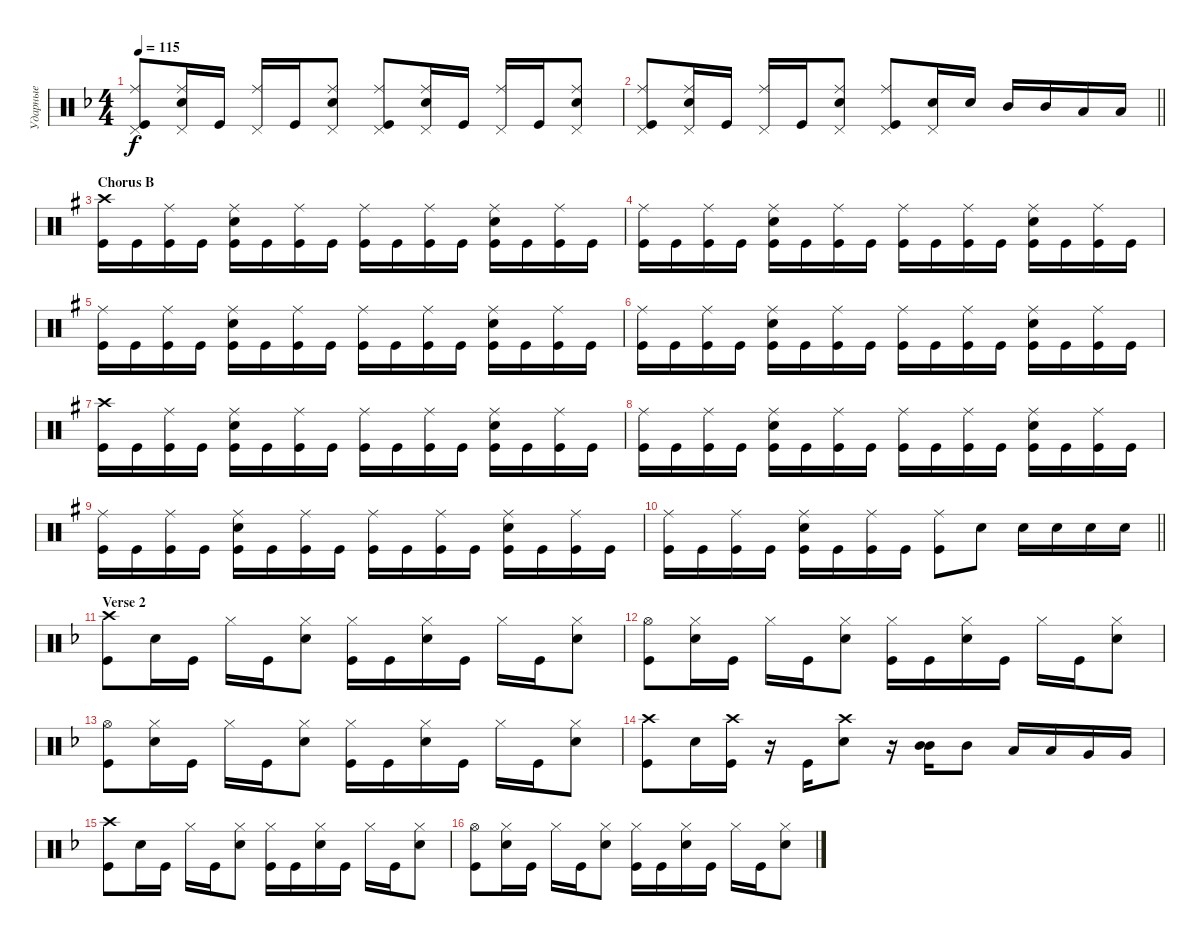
\track ("Ударные" "Ударные") {instrument percussion}
\staff {score}
\articulation defaults
\ts (4 4)
\tempo 115
\clef neutral
\ks dminor
("Kick (hit)" "Pedal Hi-Hat (hit)" "Ride (middle)").8{dy f} ("Snare (hit) 2" "Ride (middle)" "Pedal Hi-Hat (hit)").16 "Kick (hit)".16 ("Ride (middle)" "Pedal Hi-Hat (hit)").16 "Kick (hit)".16 ("Snare (hit) 2" "Ride (middle)" "Pedal Hi-Hat (hit)").8 ("Kick (hit)" "Pedal Hi-Hat (hit)" "Ride (middle)").8 ("Snare (hit) 2" "Ride (middle)" "Pedal Hi-Hat (hit)").16 "Kick (hit)".16 ("Ride (middle)" "Pedal Hi-Hat (hit)").16 "Kick (hit)".16 ("Snare (hit) 2" "Ride (middle)" "Pedal Hi-Hat (hit)").8 |
\barLineRight lightlight
("Kick (hit)" "Pedal Hi-Hat (hit)" "Ride (middle)").8 ("Snare (hit) 2" "Ride (middle)" "Pedal Hi-Hat (hit)").16 "Kick (hit)".16 ("Ride (middle)" "Pedal Hi-Hat (hit)").16 "Kick (hit)".16 ("Snare (hit) 2" "Ride (middle)" "Pedal Hi-Hat (hit)").8 ("Kick (hit)" "Pedal Hi-Hat (hit)" "Ride (middle)").8 ("Pedal Hi-Hat (hit)" "Snare (hit) 2").16 "Snare (hit) 2".16 "Mid Tom (hit)".16 "Mid Tom (hit)".16 "Low Tom (hit)".16 "Low Tom (hit)".16 |
\section ("" "Chorus B")
\ks eminor
("Kick (hit)" "Crash high (hit)").16 "Kick (hit)".16 ("Kick (hit)" "Ride (middle)").16 "Kick (hit)".16 ("Kick (hit)" "Snare (hit) 2" "Ride (middle)").16 "Kick (hit)".16 ("Kick (hit)" "Ride (middle)").16 "Kick (hit)".16 ("Kick (hit)" "Ride (middle)").16 "Kick (hit)".16 ("Kick (hit)" "Ride (middle)").16 "Kick (hit)".16 ("Kick (hit)" "Snare (hit) 2" "Ride (middle)").16 "Kick (hit)".16 ("Kick (hit)" "Ride (middle)").16 "Kick (hit)".16 |
("Kick (hit)" "Ride (middle)").16 "Kick (hit)".16 ("Kick (hit)" "Ride (middle)").16 "Kick (hit)".16 ("Kick (hit)" "Snare (hit) 2" "Ride (middle)").16 "Kick (hit)".16 ("Kick (hit)" "Ride (middle)").16 "Kick (hit)".16 ("Kick (hit)" "Ride (middle)").16 "Kick (hit)".16 ("Kick (hit)" "Ride (middle)").16 "Kick (hit)".16 ("Kick (hit)" "Snare (hit) 2" "Ride (middle)").16 "Kick (hit)".16 ("Kick (hit)" "Ride (middle)").16 "Kick (hit)".16 |
("Kick (hit)" "Ride (middle)").16 "Kick (hit)".16 ("Kick (hit)" "Ride (middle)").16 "Kick (hit)".16 ("Kick (hit)" "Snare (hit) 2" "Ride (middle)").16 "Kick (hit)".16 ("Kick (hit)" "Ride (middle)").16 "Kick (hit)".16 ("Kick (hit)" "Ride (middle)").16 "Kick (hit)".16 ("Kick (hit)" "Ride (middle)").16 "Kick (hit)".16 ("Kick (hit)" "Snare (hit) 2" "Ride (middle)").16 "Kick (hit)".16 ("Kick (hit)" "Ride (middle)").16 "Kick (hit)".16 |
("Kick (hit)" "Ride (middle)").16 "Kick (hit)".16 ("Kick (hit)" "Ride (middle)").16 "Kick (hit)".16 ("Kick (hit)" "Snare (hit) 2" "Ride (middle)").16 "Kick (hit)".16 ("Kick (hit)" "Ride (middle)").16 "Kick (hit)".16 ("Kick (hit)" "Ride (middle)").16 "Kick (hit)".16 ("Kick (hit)" "Ride (middle)").16 "Kick (hit)".16 ("Kick (hit)" "Snare (hit) 2" "Ride (middle)").16 "Kick (hit)".16 ("Kick (hit)" "Ride (middle)").16 "Kick (hit)".16 |
("Kick (hit)" "Crash high (hit)").16 "Kick (hit)".16 ("Kick (hit)" "Ride (middle)").16 "Kick (hit)".16 ("Kick (hit)" "Snare (hit) 2" "Ride (middle)").16 "Kick (hit)".16 ("Kick (hit)" "Ride (middle)").16 "Kick (hit)".16 ("Kick (hit)" "Ride (middle)").16 "Kick (hit)".16 ("Kick (hit)" "Ride (middle)").16 "Kick (hit)".16 ("Kick (hit)" "Snare (hit) 2" "Ride (middle)").16 "Kick (hit)".16 ("Kick (hit)" "Ride (middle)").16 "Kick (hit)".16 |
("Kick (hit)" "Ride (middle)").16 "Kick (hit)".16 ("Kick (hit)" "Ride (middle)").16 "Kick (hit)".16 ("Kick (hit)" "Snare (hit) 2" "Ride (middle)").16 "Kick (hit)".16 ("Kick (hit)" "Ride (middle)").16 "Kick (hit)".16 ("Kick (hit)" "Ride (middle)").16 "Kick (hit)".16 ("Kick (hit)" "Ride (middle)").16 "Kick (hit)".16 ("Kick (hit)" "Snare (hit) 2" "Ride (middle)").16 "Kick (hit)".16 ("Kick (hit)" "Ride (middle)").16 "Kick (hit)".16 |
("Kick (hit)" "Ride (middle)").16 "Kick (hit)".16 ("Kick (hit)" "Ride (middle)").16 "Kick (hit)".16 ("Kick (hit)" "Snare (hit) 2" "Ride (middle)").16 "Kick (hit)".16 ("Kick (hit)" "Ride (middle)").16 "Kick (hit)".16 ("Kick (hit)" "Ride (middle)").16 "Kick (hit)".16 ("Kick (hit)" "Ride (middle)").16 "Kick (hit)".16 ("Kick (hit)" "Snare (hit) 2" "Ride (middle)").16 "Kick (hit)".16 ("Kick (hit)" "Ride (middle)").16 "Kick (hit)".16 |
\barLineRight lightlight
("Kick (hit)" "Ride (middle)").16 "Kick (hit)".16 ("Kick (hit)" "Ride (middle)").16 "Kick (hit)".16 ("Kick (hit)" "Snare (hit) 2" "Ride (middle)").16 "Kick (hit)".16 ("Kick (hit)" "Ride (middle)").16 "Kick (hit)".16 ("Kick (hit)" "Ride (middle)").8 "Snare (hit) 2".8 "Snare (hit) 2".16 "Snare (hit) 2".16 "Snare (hit) 2".16 "Snare (hit) 2".16 |
\section ("" "Verse 2")
\ks dminor
("Kick (hit)" "Crash high (hit)").8 "Snare (hit) 2".16 "Kick (hit)".16 "Hi-Hat (closed)".16 "Kick (hit)".16 ("Snare (hit) 2" "Hi-Hat (closed)").8 ("Kick (hit)" "Hi-Hat (closed)").16 "Kick (hit)".16 ("Snare (hit) 2" "Hi-Hat (closed)").16 "Kick (hit)".16 "Hi-Hat (closed)".16 "Kick (hit)".16 ("Snare (hit) 2" "Hi-Hat (closed)").8 |
("Kick (hit)" "Hi-Hat (open)").8 ("Snare (hit) 2" "Hi-Hat (closed)").16 "Kick (hit)".16 "Hi-Hat (closed)".16 "Kick (hit)".16 ("Snare (hit) 2" "Hi-Hat (closed)").8 ("Kick (hit)" "Hi-Hat (closed)").16 "Kick (hit)".16 ("Snare (hit) 2" "Hi-Hat (closed)").16 "Kick (hit)".16 "Hi-Hat (closed)".16 "Kick (hit)".16 ("Snare (hit) 2" "Hi-Hat (closed)").8 |
("Kick (hit)" "Hi-Hat (open)").8 ("Snare (hit) 2" "Hi-Hat (closed)").16 "Kick (hit)".16 "Hi-Hat (closed)".16 "Kick (hit)".16 ("Snare (hit) 2" "Hi-Hat (closed)").8 ("Kick (hit)" "Hi-Hat (closed)").16 "Kick (hit)".16 ("Snare (hit) 2" "Hi-Hat (closed)").16 "Kick (hit)".16 "Hi-Hat (closed)".16 "Kick (hit)".16 ("Snare (hit) 2" "Hi-Hat (closed)").8 |
("Kick (hit)" "Crash high (hit)").8 "Snare (hit) 2".16 ("Kick (hit)" "Crash high (hit)").16 r.16 "Kick (hit)".16 ("Snare (hit) 2" "Crash high (hit)").8 r.16 ("Mid Tom (hit)" "Mid Tom (hit)").16{bd 240} "Mid Tom (hit)".8 "Low Tom (hit)".16 "Low Tom (hit)".16 "Very Low Tom (hit)".16 "Very Low Tom (hit)".16 |
("Kick (hit)" "Crash high (hit)").8 "Snare (hit) 2".16 "Kick (hit)".16 "Hi-Hat (closed)".16 "Kick (hit)".16 ("Snare (hit) 2" "Hi-Hat (closed)").8 ("Kick (hit)" "Hi-Hat (closed)").16 "Kick (hit)".16 ("Snare (hit) 2" "Hi-Hat (closed)").16 "Kick (hit)".16 "Hi-Hat (closed)".16 "Kick (hit)".16 ("Snare (hit) 2" "Hi-Hat (closed)").8 |
("Kick (hit)" "Hi-Hat (open)").8 ("Snare (hit) 2" "Hi-Hat (closed)").16 "Kick (hit)".16 "Hi-Hat (closed)".16 "Kick (hit)".16 ("Snare (hit) 2" "Hi-Hat (closed)").8 ("Kick (hit)" "Hi-Hat (closed)").16 "Kick (hit)".16 ("Snare (hit) 2" "Hi-Hat (closed)").16 "Kick (hit)".16 "Hi-Hat (closed)".16 "Kick (hit)".16 ("Snare (hit) 2" "Hi-Hat (closed)").8
